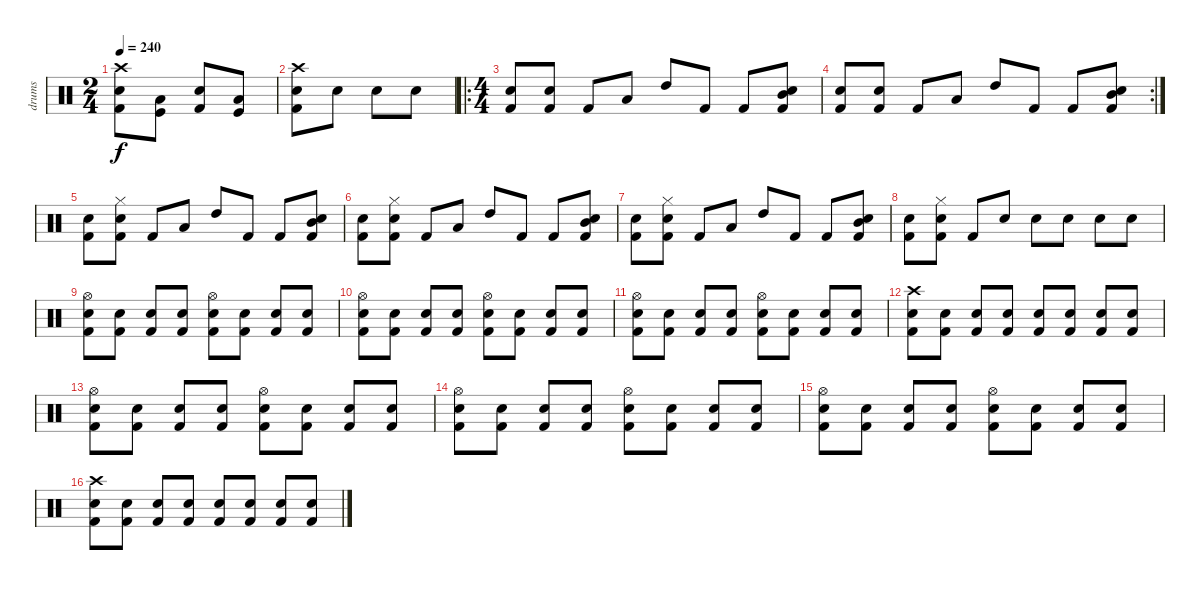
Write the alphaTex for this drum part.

\track ("drums" "drums") {instrument percussion}
\staff {score}
\articulation defaults
\ts (2 4)
\tempo 240
\clef neutral
\ks c
("Crash high (hit)" "Snare (hit) 2" "Kick (hit) 2").8{dy f} ("Low Tom (hit)" "Kick (hit)").8 ("Snare (hit) 2" "Kick (hit) 2").8 ("Low Tom (hit)" "Kick (hit)").8 |
("Crash high (hit)" "Snare (hit) 2" "Kick (hit) 2").8 "Electric Snare (hit)".8 "Electric Snare (hit)".8 "Electric Snare (hit)".8 |
\ro
\ts (4 4)
("Electric Snare (hit)" "Kick (hit) 2").8 ("Electric Snare (hit)" "Kick (hit) 2").8 "Kick (hit) 2".8 "Low Tom (hit)".8 "High Tom (hit)".8 "Kick (hit) 2".8 "Kick (hit) 2".8 ("Mid Tom (hit)" "Snare (hit) 2" "Kick (hit) 2").8 |
\rc 2
("Electric Snare (hit)" "Kick (hit) 2").8 ("Electric Snare (hit)" "Kick (hit) 2").8 "Kick (hit) 2".8 "Low Tom (hit)".8 "High Tom (hit)".8 "Kick (hit) 2".8 "Kick (hit) 2".8 ("Mid Tom (hit)" "Snare (hit) 2" "Kick (hit) 2").8 |
("Electric Snare (hit)" "Kick (hit) 2").8 ("Hi-Hat (closed)" "Electric Snare (hit)" "Kick (hit) 2").8 "Kick (hit) 2".8 "Low Tom (hit)".8 "High Tom (hit)".8 "Kick (hit) 2".8 "Kick (hit) 2".8 ("Mid Tom (hit)" "Snare (hit) 2" "Kick (hit) 2").8 |
("Electric Snare (hit)" "Kick (hit) 2").8 ("Hi-Hat (closed)" "Electric Snare (hit)" "Kick (hit) 2").8 "Kick (hit) 2".8 "Low Tom (hit)".8 "High Tom (hit)".8 "Kick (hit) 2".8 "Kick (hit) 2".8 ("Mid Tom (hit)" "Snare (hit) 2" "Kick (hit) 2").8 |
("Electric Snare (hit)" "Kick (hit) 2").8 ("Hi-Hat (closed)" "Electric Snare (hit)" "Kick (hit) 2").8 "Kick (hit) 2".8 "Low Tom (hit)".8 "High Tom (hit)".8 "Kick (hit) 2".8 "Kick (hit) 2".8 ("Mid Tom (hit)" "Snare (hit) 2" "Kick (hit) 2").8 |
("Electric Snare (hit)" "Kick (hit) 2").8 ("Hi-Hat (closed)" "Electric Snare (hit)" "Kick (hit) 2").8 "Kick (hit) 2".8 "Electric Snare (hit)".8 "Electric Snare (hit)".8 "Electric Snare (hit)".8 "Electric Snare (hit)".8 "Electric Snare (hit)".8 |
("Hi-Hat (open)" "Snare (hit) 2" "Kick (hit) 2").8 ("Snare (hit) 2" "Kick (hit) 2").8 ("Snare (hit) 2" "Kick (hit) 2").8 ("Snare (hit) 2" "Kick (hit) 2").8 ("Hi-Hat (open)" "Snare (hit) 2" "Kick (hit) 2").8 ("Snare (hit) 2" "Kick (hit) 2").8 ("Snare (hit) 2" "Kick (hit) 2").8 ("Snare (hit) 2" "Kick (hit) 2").8 |
("Hi-Hat (open)" "Snare (hit) 2" "Kick (hit) 2").8 ("Snare (hit) 2" "Kick (hit) 2").8 ("Snare (hit) 2" "Kick (hit) 2").8 ("Snare (hit) 2" "Kick (hit) 2").8 ("Hi-Hat (open)" "Snare (hit) 2" "Kick (hit) 2").8 ("Snare (hit) 2" "Kick (hit) 2").8 ("Snare (hit) 2" "Kick (hit) 2").8 ("Snare (hit) 2" "Kick (hit) 2").8 |
("Hi-Hat (open)" "Snare (hit) 2" "Kick (hit) 2").8 ("Snare (hit) 2" "Kick (hit) 2").8 ("Snare (hit) 2" "Kick (hit) 2").8 ("Snare (hit) 2" "Kick (hit) 2").8 ("Hi-Hat (open)" "Snare (hit) 2" "Kick (hit) 2").8 ("Snare (hit) 2" "Kick (hit) 2").8 ("Snare (hit) 2" "Kick (hit) 2").8 ("Snare (hit) 2" "Kick (hit) 2").8 |
("Crash high (hit)" "Snare (hit) 2" "Kick (hit) 2").8 ("Electric Snare (hit)" "Kick (hit) 2").8 ("Electric Snare (hit)" "Kick (hit) 2").8 ("Electric Snare (hit)" "Kick (hit) 2").8 ("Electric Snare (hit)" "Kick (hit) 2").8 ("Electric Snare (hit)" "Kick (hit) 2").8 ("Electric Snare (hit)" "Kick (hit) 2").8 ("Electric Snare (hit)" "Kick (hit) 2").8 |
("Hi-Hat (open)" "Snare (hit) 2" "Kick (hit) 2").8 ("Snare (hit) 2" "Kick (hit) 2").8 ("Snare (hit) 2" "Kick (hit) 2").8 ("Snare (hit) 2" "Kick (hit) 2").8 ("Hi-Hat (open)" "Snare (hit) 2" "Kick (hit) 2").8 ("Snare (hit) 2" "Kick (hit) 2").8 ("Snare (hit) 2" "Kick (hit) 2").8 ("Snare (hit) 2" "Kick (hit) 2").8 |
("Hi-Hat (open)" "Snare (hit) 2" "Kick (hit) 2").8 ("Snare (hit) 2" "Kick (hit) 2").8 ("Snare (hit) 2" "Kick (hit) 2").8 ("Snare (hit) 2" "Kick (hit) 2").8 ("Hi-Hat (open)" "Snare (hit) 2" "Kick (hit) 2").8 ("Snare (hit) 2" "Kick (hit) 2").8 ("Snare (hit) 2" "Kick (hit) 2").8 ("Snare (hit) 2" "Kick (hit) 2").8 |
("Hi-Hat (open)" "Snare (hit) 2" "Kick (hit) 2").8 ("Snare (hit) 2" "Kick (hit) 2").8 ("Snare (hit) 2" "Kick (hit) 2").8 ("Snare (hit) 2" "Kick (hit) 2").8 ("Hi-Hat (open)" "Snare (hit) 2" "Kick (hit) 2").8 ("Snare (hit) 2" "Kick (hit) 2").8 ("Snare (hit) 2" "Kick (hit) 2").8 ("Snare (hit) 2" "Kick (hit) 2").8 |
("Crash high (hit)" "Snare (hit) 2" "Kick (hit) 2").8 ("Electric Snare (hit)" "Kick (hit) 2").8 ("Electric Snare (hit)" "Kick (hit) 2").8 ("Electric Snare (hit)" "Kick (hit) 2").8 ("Electric Snare (hit)" "Kick (hit) 2").8 ("Electric Snare (hit)" "Kick (hit) 2").8 ("Electric Snare (hit)" "Kick (hit) 2").8 ("Electric Snare (hit)" "Kick (hit) 2").8
